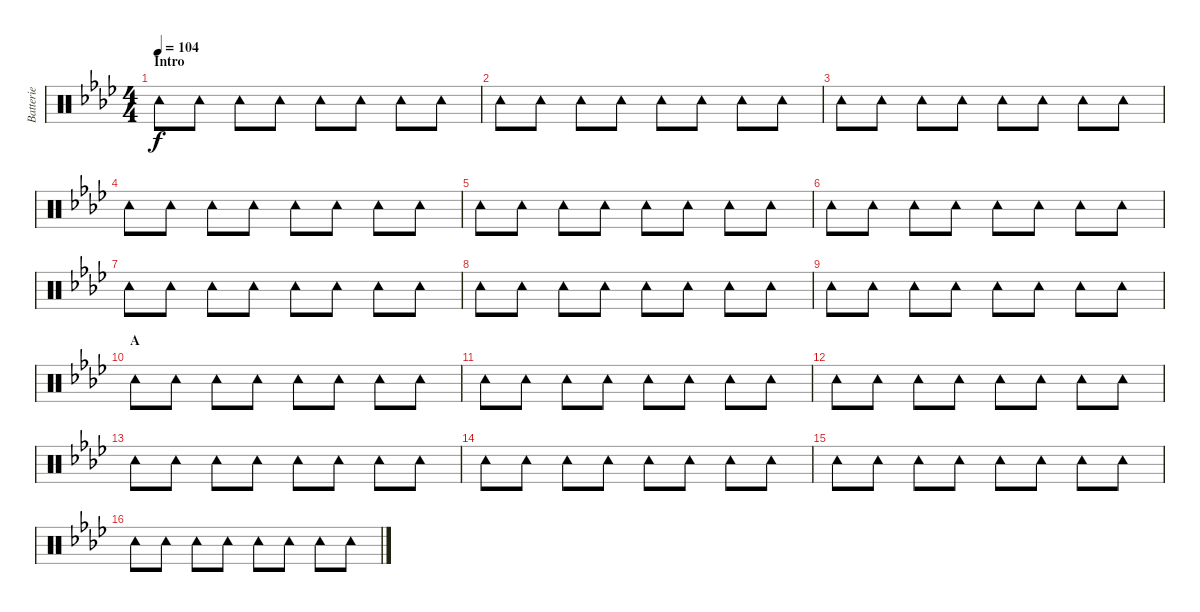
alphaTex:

\track ("Batterie" "Batterie") {instrument percussion}
\staff {score}
\articulation defaults
\ts (4 4)
\section ("" "Intro")
\tempo 104
\clef neutral
\ks ab "Tambourine (hit)".8{dy f volume 6} "Tambourine (hit)".8 "Tambourine (hit)".8 "Tambourine (hit)".8 "Tambourine (hit)".8 "Tambourine (hit)".8 "Tambourine (hit)".8 "Tambourine (hit)".8
|
"Tambourine (hit)".8 "Tambourine (hit)".8 "Tambourine (hit)".8 "Tambourine (hit)".8 "Tambourine (hit)".8 "Tambourine (hit)".8 "Tambourine (hit)".8 "Tambourine (hit)".8 |
"Tambourine (hit)".8 "Tambourine (hit)".8 "Tambourine (hit)".8 "Tambourine (hit)".8 "Tambourine (hit)".8 "Tambourine (hit)".8 "Tambourine (hit)".8 "Tambourine (hit)".8 |
"Tambourine (hit)".8 "Tambourine (hit)".8 "Tambourine (hit)".8 "Tambourine (hit)".8 "Tambourine (hit)".8 "Tambourine (hit)".8 "Tambourine (hit)".8 "Tambourine (hit)".8 |
"Tambourine (hit)".8 "Tambourine (hit)".8 "Tambourine (hit)".8 "Tambourine (hit)".8 "Tambourine (hit)".8 "Tambourine (hit)".8 "Tambourine (hit)".8 "Tambourine (hit)".8 |
"Tambourine (hit)".8 "Tambourine (hit)".8 "Tambourine (hit)".8 "Tambourine (hit)".8 "Tambourine (hit)".8 "Tambourine (hit)".8 "Tambourine (hit)".8 "Tambourine (hit)".8 |
"Tambourine (hit)".8 "Tambourine (hit)".8 "Tambourine (hit)".8 "Tambourine (hit)".8 "Tambourine (hit)".8 "Tambourine (hit)".8 "Tambourine (hit)".8 "Tambourine (hit)".8 |
"Tambourine (hit)".8 "Tambourine (hit)".8 "Tambourine (hit)".8 "Tambourine (hit)".8 "Tambourine (hit)".8 "Tambourine (hit)".8 "Tambourine (hit)".8 "Tambourine (hit)".8 |
"Tambourine (hit)".8 "Tambourine (hit)".8 "Tambourine (hit)".8 "Tambourine (hit)".8 "Tambourine (hit)".8 "Tambourine (hit)".8 "Tambourine (hit)".8 "Tambourine (hit)".8 |
\section ("" "A")
"Tambourine (hit)".8{volume 12} "Tambourine (hit)".8 "Tambourine (hit)".8 "Tambourine (hit)".8 "Tambourine (hit)".8 "Tambourine (hit)".8 "Tambourine (hit)".8 "Tambourine (hit)".8 |
"Tambourine (hit)".8 "Tambourine (hit)".8 "Tambourine (hit)".8 "Tambourine (hit)".8 "Tambourine (hit)".8 "Tambourine (hit)".8 "Tambourine (hit)".8 "Tambourine (hit)".8 |
"Tambourine (hit)".8 "Tambourine (hit)".8 "Tambourine (hit)".8 "Tambourine (hit)".8 "Tambourine (hit)".8 "Tambourine (hit)".8 "Tambourine (hit)".8 "Tambourine (hit)".8 |
"Tambourine (hit)".8 "Tambourine (hit)".8 "Tambourine (hit)".8 "Tambourine (hit)".8 "Tambourine (hit)".8 "Tambourine (hit)".8 "Tambourine (hit)".8 "Tambourine (hit)".8 |
"Tambourine (hit)".8 "Tambourine (hit)".8 "Tambourine (hit)".8 "Tambourine (hit)".8 "Tambourine (hit)".8 "Tambourine (hit)".8 "Tambourine (hit)".8 "Tambourine (hit)".8 |
"Tambourine (hit)".8 "Tambourine (hit)".8 "Tambourine (hit)".8 "Tambourine (hit)".8 "Tambourine (hit)".8 "Tambourine (hit)".8 "Tambourine (hit)".8 "Tambourine (hit)".8 |
"Tambourine (hit)".8 "Tambourine (hit)".8 "Tambourine (hit)".8 "Tambourine (hit)".8 "Tambourine (hit)".8 "Tambourine (hit)".8 "Tambourine (hit)".8 "Tambourine (hit)".8
